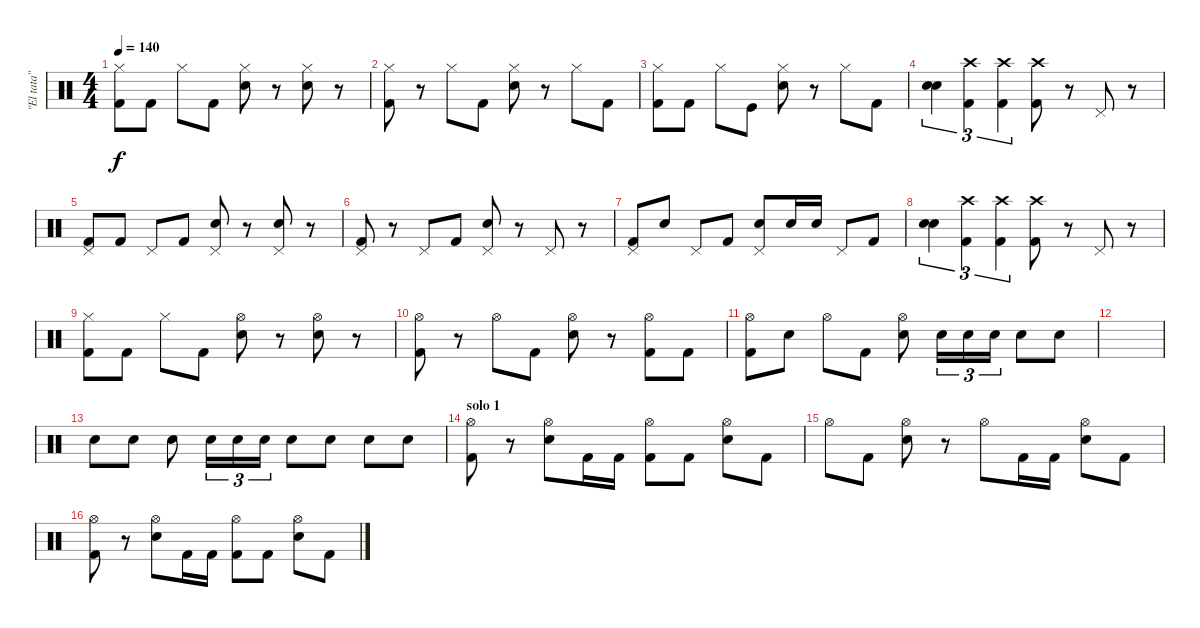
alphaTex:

\track ("\"El tata\"" "\"El tata\"") {instrument percussion}
\staff {score}
\articulation defaults
\ts (4 4)
\tempo 140
\clef neutral
\ks c
("Hi-Hat (closed)" "Kick (hit) 2").8{dy f} "Kick (hit) 2".8 "Hi-Hat (closed)".8 "Kick (hit) 2".8 ("Hi-Hat (closed)" "Electric Snare (hit)").8 r.8 ("Hi-Hat (closed)" "Electric Snare (hit)").8 r.8 |
("Hi-Hat (closed)" "Kick (hit) 2").8 r.8 "Hi-Hat (closed)".8 "Kick (hit) 2".8 ("Hi-Hat (closed)" "Electric Snare (hit)").8 r.8 "Hi-Hat (closed)".8 "Kick (hit) 2".8 |
("Hi-Hat (closed)" "Kick (hit) 2").8 "Kick (hit) 2".8 "Hi-Hat (closed)".8 "Kick (hit)".8 ("Hi-Hat (closed)" "Electric Snare (hit)").8 r.8 "Hi-Hat (closed)".8 "Kick (hit) 2".8 |
("Electric Snare (hit)" "Electric Snare (hit)").4{tu (3 2)} ("Crash high (hit)" "Kick (hit) 2").4{tu (3 2)} ("Crash high (hit)" "Kick (hit) 2").4{tu (3 2)} ("Crash high (hit)" "Kick (hit) 2").8 r.8 "Pedal Hi-Hat (hit)".8 r.8 |
("Pedal Hi-Hat (hit)" "Kick (hit) 2").8 "Kick (hit) 2".8 "Pedal Hi-Hat (hit)".8 "Kick (hit) 2".8 ("Pedal Hi-Hat (hit)" "Electric Snare (hit)").8 r.8 ("Pedal Hi-Hat (hit)" "Electric Snare (hit)").8 r.8 |
("Pedal Hi-Hat (hit)" "Kick (hit) 2").8 r.8 "Pedal Hi-Hat (hit)".8 "Kick (hit) 2".8 ("Pedal Hi-Hat (hit)" "Electric Snare (hit)").8 r.8 "Pedal Hi-Hat (hit)".8 r.8 |
("Pedal Hi-Hat (hit)" "Kick (hit) 2").8 "Electric Snare (hit)".8 "Pedal Hi-Hat (hit)".8 "Kick (hit) 2".8 ("Pedal Hi-Hat (hit)" "Electric Snare (hit)").8 "Electric Snare (hit)".16 "Electric Snare (hit)".16 "Pedal Hi-Hat (hit)".8 "Kick (hit) 2".8 |
("Electric Snare (hit)" "Electric Snare (hit)").4{tu (3 2)} ("Crash high (hit)" "Kick (hit) 2").4{tu (3 2)} ("Crash high (hit)" "Kick (hit) 2").4{tu (3 2)} ("Crash high (hit)" "Kick (hit) 2").8 r.8 "Pedal Hi-Hat (hit)".8 r.8 |
("Hi-Hat (closed)" "Kick (hit) 2").8 "Kick (hit) 2".8 "Hi-Hat (closed)".8 "Kick (hit) 2".8 ("Hi-Hat (open)" "Electric Snare (hit)").8 r.8 ("Hi-Hat (open)" "Electric Snare (hit)").8 r.8 |
("Hi-Hat (open)" "Kick (hit) 2").8 r.8 "Hi-Hat (open)".8 "Kick (hit) 2".8 ("Hi-Hat (open)" "Electric Snare (hit)").8 r.8 ("Hi-Hat (open)" "Kick (hit) 2").8 "Kick (hit) 2".8 |
("Hi-Hat (open)" "Kick (hit) 2").8 "Electric Snare (hit)".8 "Hi-Hat (open)".8 "Kick (hit) 2".8 ("Hi-Hat (open)" "Electric Snare (hit)").8 "Electric Snare (hit)".16{tu (3 2)} "Electric Snare (hit)".16{tu (3 2)} "Electric Snare (hit)".16{tu (3 2)} "Electric Snare (hit)".8 "Electric Snare (hit)".8 |
|
"Electric Snare (hit)".8 "Electric Snare (hit)".8 "Electric Snare (hit)".8 "Electric Snare (hit)".16{tu (3 2)} "Electric Snare (hit)".16{tu (3 2)} "Electric Snare (hit)".16{tu (3 2)} "Electric Snare (hit)".8 "Electric Snare (hit)".8 "Electric Snare (hit)".8 "Electric Snare (hit)".8 |
\section ("" "solo 1")
("Hi-Hat (open)" "Kick (hit) 2").8 r.8 ("Hi-Hat (open)" "Electric Snare (hit)").8 "Kick (hit) 2".16 "Kick (hit) 2".16 ("Hi-Hat (open)" "Kick (hit) 2").8 "Kick (hit) 2".8 ("Hi-Hat (open)" "Electric Snare (hit)").8 "Kick (hit) 2".8 |
"Hi-Hat (open)".8 "Kick (hit) 2".8 ("Hi-Hat (open)" "Electric Snare (hit)").8 r.8 "Hi-Hat (open)".8 "Kick (hit) 2".16 "Kick (hit) 2".16 ("Hi-Hat (open)" "Electric Snare (hit)").8 "Kick (hit) 2".8 |
("Hi-Hat (open)" "Kick (hit) 2").8 r.8 ("Hi-Hat (open)" "Electric Snare (hit)").8 "Kick (hit) 2".16 "Kick (hit) 2".16 ("Hi-Hat (open)" "Kick (hit) 2").8 "Kick (hit) 2".8 ("Hi-Hat (open)" "Electric Snare (hit)").8 "Kick (hit) 2".8
